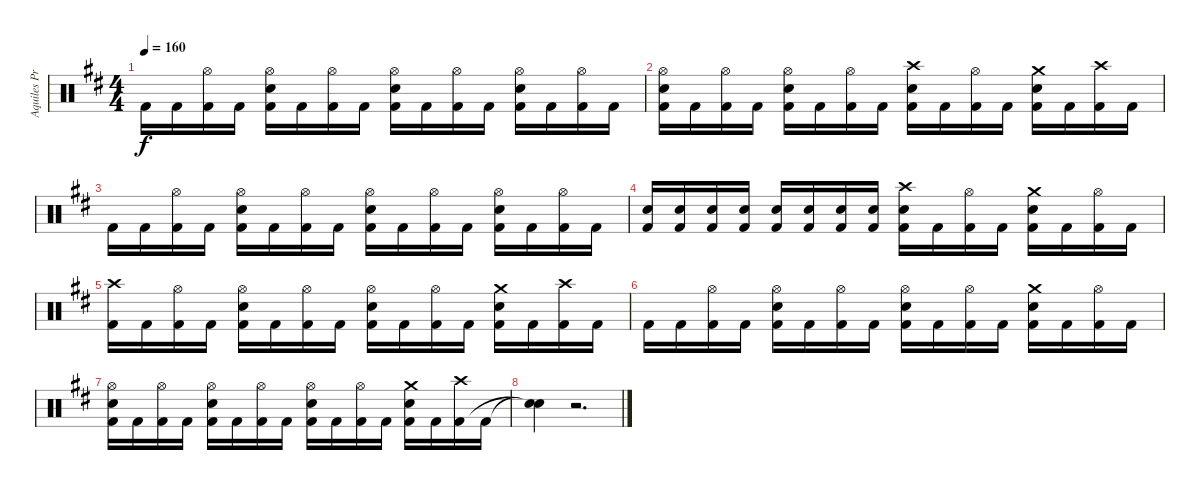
\track ("Aquiles Priester" "Aquiles Pr") {instrument percussion}
\staff {score}
\articulation defaults
\ts (4 4)
\tempo 160
\clef neutral
\ks d "Kick (hit) 2".16{dy f} "Kick (hit) 2".16
("Hi-Hat (open)" "Kick (hit) 2").16 "Kick (hit) 2".16 ("Hi-Hat (open)" "Electric Snare (hit)" "Kick (hit) 2").16 "Kick (hit) 2".16 ("Hi-Hat (open)" "Kick (hit) 2").16 "Kick (hit) 2".16 ("Hi-Hat (open)" "Electric Snare (hit)" "Kick (hit) 2").16 "Kick (hit) 2".16 ("Hi-Hat (open)" "Kick (hit) 2").16 "Kick (hit) 2".16 ("Hi-Hat (open)" "Electric Snare (hit)" "Kick (hit) 2").16 "Kick (hit) 2".16 ("Hi-Hat (open)" "Kick (hit) 2").16 "Kick (hit) 2".16 |
("Hi-Hat (open)" "Electric Snare (hit)" "Kick (hit) 2").16 "Kick (hit) 2".16 ("Hi-Hat (open)" "Kick (hit) 2").16 "Kick (hit) 2".16 ("Hi-Hat (open)" "Electric Snare (hit)" "Kick (hit) 2").16 "Kick (hit) 2".16 ("Hi-Hat (open)" "Kick (hit) 2").16 "Kick (hit) 2".16 ("Crash high (hit)" "Electric Snare (hit)" "Kick (hit) 2").16 "Kick (hit) 2".16 ("Hi-Hat (open)" "Kick (hit) 2").16 "Kick (hit) 2".16 ("Crash medium (hit)" "Electric Snare (hit)" "Kick (hit) 2").16 "Kick (hit) 2".16 ("Crash high (hit)" "Kick (hit) 2").16 "Kick (hit) 2".16 |
"Kick (hit) 2".16 "Kick (hit) 2".16 ("Hi-Hat (open)" "Kick (hit) 2").16 "Kick (hit) 2".16 ("Hi-Hat (open)" "Electric Snare (hit)" "Kick (hit) 2").16 "Kick (hit) 2".16 ("Hi-Hat (open)" "Kick (hit) 2").16 "Kick (hit) 2".16 ("Hi-Hat (open)" "Electric Snare (hit)" "Kick (hit) 2").16 "Kick (hit) 2".16 ("Hi-Hat (open)" "Kick (hit) 2").16 "Kick (hit) 2".16 ("Hi-Hat (open)" "Electric Snare (hit)" "Kick (hit) 2").16 "Kick (hit) 2".16 ("Hi-Hat (open)" "Kick (hit) 2").16 "Kick (hit) 2".16 |
("Electric Snare (hit)" "Kick (hit) 2").16 ("Electric Snare (hit)" "Kick (hit) 2").16 ("Electric Snare (hit)" "Kick (hit) 2").16 ("Electric Snare (hit)" "Kick (hit) 2").16 ("Electric Snare (hit)" "Kick (hit) 2").16 ("Electric Snare (hit)" "Kick (hit) 2").16 ("Electric Snare (hit)" "Kick (hit) 2").16 ("Electric Snare (hit)" "Kick (hit) 2").16 ("Crash high (hit)" "Electric Snare (hit)" "Kick (hit) 2").16 "Kick (hit) 2".16 ("Hi-Hat (open)" "Kick (hit) 2").16 "Kick (hit) 2".16 ("Crash medium (hit)" "Electric Snare (hit)" "Kick (hit) 2").16 "Kick (hit) 2".16 ("Hi-Hat (open)" "Kick (hit) 2").16 "Kick (hit) 2".16 |
("Crash high (hit)" "Kick (hit) 2").16 "Kick (hit) 2".16 ("Hi-Hat (open)" "Kick (hit) 2").16 "Kick (hit) 2".16 ("Hi-Hat (open)" "Electric Snare (hit)" "Kick (hit) 2").16 "Kick (hit) 2".16 ("Hi-Hat (open)" "Kick (hit) 2").16 "Kick (hit) 2".16 ("Hi-Hat (open)" "Electric Snare (hit)" "Kick (hit) 2").16 "Kick (hit) 2".16 ("Hi-Hat (open)" "Kick (hit) 2").16 "Kick (hit) 2".16 ("Crash medium (hit)" "Electric Snare (hit)" "Kick (hit) 2").16 "Kick (hit) 2".16 ("Crash high (hit)" "Kick (hit) 2").16 "Kick (hit) 2".16 |
"Kick (hit) 2".16 "Kick (hit) 2".16 ("Hi-Hat (open)" "Kick (hit) 2").16 "Kick (hit) 2".16 ("Hi-Hat (open)" "Electric Snare (hit)" "Kick (hit) 2").16 "Kick (hit) 2".16 ("Hi-Hat (open)" "Kick (hit) 2").16 "Kick (hit) 2".16 ("Hi-Hat (open)" "Electric Snare (hit)" "Kick (hit) 2").16 "Kick (hit) 2".16 ("Hi-Hat (open)" "Kick (hit) 2").16 "Kick (hit) 2".16 ("Crash medium (hit)" "Electric Snare (hit)" "Kick (hit) 2").16 "Kick (hit) 2".16 ("Hi-Hat (open)" "Kick (hit) 2").16 "Kick (hit) 2".16 |
("Hi-Hat (open)" "Electric Snare (hit)" "Kick (hit) 2").16 "Kick (hit) 2".16 ("Hi-Hat (open)" "Kick (hit) 2").16 "Kick (hit) 2".16 ("Hi-Hat (open)" "Electric Snare (hit)" "Kick (hit) 2").16 "Kick (hit) 2".16 ("Hi-Hat (open)" "Kick (hit) 2").16 "Kick (hit) 2".16 ("Hi-Hat (open)" "Electric Snare (hit)" "Kick (hit) 2").16 "Kick (hit) 2".16 ("Hi-Hat (open)" "Kick (hit) 2").16 "Kick (hit) 2".16 ("Crash medium (hit)" "Electric Snare (hit)" "Kick (hit) 2").16 "Kick (hit) 2".16 ("Crash high (hit)" "Kick (hit) 2").16 "Kick (hit) 2".16 |
("Snare (hit)"{t} "Snare (hit)"{t}).4 r.2{d}
